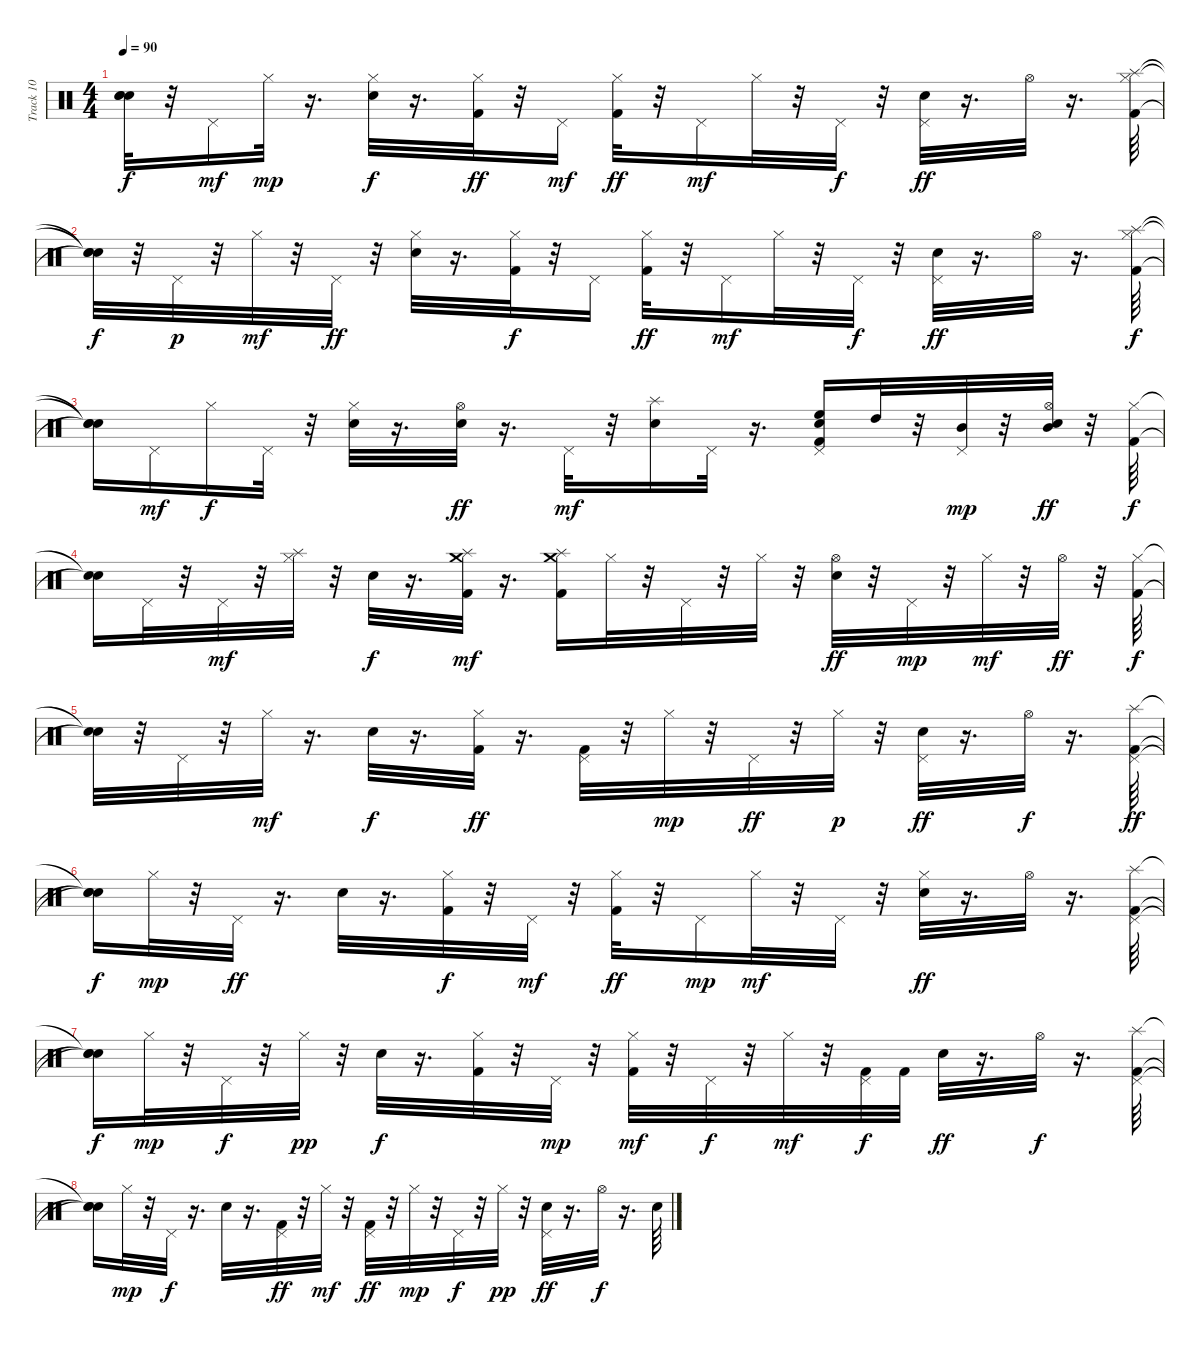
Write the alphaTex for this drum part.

\track ("Track 10" "Track 10") {instrument percussion}
\staff {score}
\articulation defaults
\ts (4 4)
\tempo 90
\clef neutral
\ks c
("Snare (hit)"{t} "Snare (hit)"{t} "Snare (hit)"{t}).32{dy f} r.32 "Pedal Hi-Hat (hit)".16{dy mf} "Hi-Hat (closed)".32{dy mp} r.16{d} ("Hi-Hat (closed)" "Snare (hit) 2").32{dy f} r.16{d} ("Hi-Hat (closed)" "Kick (hit) 2").32{dy ff} r.32 "Pedal Hi-Hat (hit)".16{dy mf} ("Hi-Hat (closed)" "Kick (hit) 2").32{dy ff} r.32 "Pedal Hi-Hat (hit)".16{dy mf} "Hi-Hat (closed)".32 r.32 "Pedal Hi-Hat (hit)".32{dy f} r.32 ("Pedal Hi-Hat (hit)" "Snare (hit) 2").32{dy ff} r.16{d} "Hi-Hat (open)".32 r.16{d} ("Hi-Hat (closed)" "Splash (hit)" "Kick (hit) 2").64 |
("Snare (hit)"{t} "Snare (hit)"{t} "Snare (hit)"{t}).32{dy f} r.32 "Pedal Hi-Hat (hit)".32{dy p} r.32 "Hi-Hat (closed)".32{dy mf} r.32 "Pedal Hi-Hat (hit)".32{dy ff} r.32 ("Hi-Hat (closed)" "Snare (hit) 2").32 r.16{d} ("Hi-Hat (closed)" "Kick (hit) 2").32{dy f} r.32 "Pedal Hi-Hat (hit)".16 ("Hi-Hat (closed)" "Kick (hit) 2").32{dy ff} r.32 "Pedal Hi-Hat (hit)".16{dy mf} "Hi-Hat (closed)".32 r.32 "Pedal Hi-Hat (hit)".32{dy f} r.32 ("Pedal Hi-Hat (hit)" "Snare (hit) 2").32{dy ff} r.16{d} "Hi-Hat (open)".32 r.16{d} ("Hi-Hat (closed)" "Splash (hit)" "Kick (hit) 2").64{dy f} |
("Snare (hit)"{t} "Snare (hit)"{t} "Snare (hit)"{t}).16 "Pedal Hi-Hat (hit)".16{dy mf} "Hi-Hat (closed)".16{dy f} "Pedal Hi-Hat (hit)".32 r.32 ("Hi-Hat (closed)" "Snare (hit) 2").32 r.16{d} ("Hi-Hat (open)" "Snare (hit) 2").32{dy ff} r.16{d} "Pedal Hi-Hat (hit)".32{dy mf} r.32 ("Splash (hit)" "Snare (hit) 2").16 "Pedal Hi-Hat (hit)".32 r.16{d} ("Pedal Hi-Hat (hit)" "High Floor Tom (hit)" "Snare (hit) 2" "Kick (hit) 2").16 "High Tom (hit)".32 r.32 ("Pedal Hi-Hat (hit)" "Mid Tom (hit)").32{dy mp} r.32 ("Hi-Hat (open)" "Snare (hit) 2" "Mid Tom (hit)").32{dy ff} r.32 ("Hi-Hat (closed)" "Kick (hit) 2").64{dy f} |
("Snare (hit)"{t} "Snare (hit)"{t}).16 "Pedal Hi-Hat (hit)".32 r.32 "Pedal Hi-Hat (hit)".32{dy mf} r.32 ("Hi-Hat (closed)" "Splash (hit)").32 r.32 "Snare (hit) 2".32{dy f} r.16{d} ("Kick (hit) 2" "Splash (hit)" "Crash medium (hit)").32{dy mf} r.16{d} ("Kick (hit) 2" "Splash (hit)" "Crash medium (hit)").16 "Hi-Hat (closed)".32 r.32 "Pedal Hi-Hat (hit)".32 r.32 "Hi-Hat (closed)".32 r.32 ("Hi-Hat (open)" "Snare (hit) 2").32{dy ff} r.32 "Pedal Hi-Hat (hit)".32{dy mp} r.32 "Hi-Hat (closed)".32{dy mf} r.32 "Hi-Hat (open)".32{dy ff} r.32 ("Hi-Hat (closed)" "Kick (hit) 2").64{dy f} |
("Snare (hit)"{t} "Snare (hit)"{t}).32 r.32 "Pedal Hi-Hat (hit)".32 r.32 "Hi-Hat (closed)".32{dy mf} r.16{d} "Snare (hit) 2".32{dy f} r.16{d} ("Hi-Hat (closed)" "Kick (hit) 2").32{dy ff} r.16{d} ("Pedal Hi-Hat (hit)" "Kick (hit) 2").32 r.32 "Hi-Hat (closed)".32{dy mp} r.32 "Pedal Hi-Hat (hit)".32{dy ff} r.32 "Hi-Hat (closed)".32{dy p} r.32 ("Pedal Hi-Hat (hit)" "Snare (hit) 2").32{dy ff} r.16{d} "Hi-Hat (open)".32{dy f} r.16{d} ("Pedal Hi-Hat (hit)" "Splash (hit)" "Kick (hit) 2").64{dy ff} |
("Snare (hit)"{t} "Snare (hit)"{t} "Snare (hit)"{t}).16{dy f} "Hi-Hat (closed)".32{dy mp} r.32 "Pedal Hi-Hat (hit)".32{dy ff} r.16{d} "Snare (hit) 2".32 r.16{d} ("Hi-Hat (closed)" "Kick (hit) 2").32{dy f} r.32 "Pedal Hi-Hat (hit)".32{dy mf} r.32 ("Hi-Hat (closed)" "Kick (hit) 2").32{dy ff} r.32 "Pedal Hi-Hat (hit)".16{dy mp} "Hi-Hat (closed)".32{dy mf} r.32 "Pedal Hi-Hat (hit)".32 r.32 ("Hi-Hat (closed)" "Snare (hit) 2").32{dy ff} r.16{d} "Hi-Hat (open)".32 r.16{d} ("Pedal Hi-Hat (hit)" "Kick (hit) 2" "Splash (hit)").64 |
("Snare (hit)"{t} "Snare (hit)"{t} "Snare (hit)"{t}).16{dy f} "Hi-Hat (closed)".32{dy mp} r.32 "Pedal Hi-Hat (hit)".32{dy f} r.32 "Hi-Hat (closed)".32{dy pp} r.32 "Snare (hit) 2".32{dy f} r.16{d} ("Hi-Hat (closed)" "Kick (hit) 2").32 r.32 "Pedal Hi-Hat (hit)".32{dy mp} r.32 ("Hi-Hat (closed)" "Kick (hit) 2").32{dy mf} r.32 "Pedal Hi-Hat (hit)".32{dy f} r.32 "Hi-Hat (closed)".32{dy mf} r.32 ("Pedal Hi-Hat (hit)" "Kick (hit) 2").32{dy f} "Kick (hit) 2".32 "Snare (hit) 2".32{dy ff} r.16{d} "Hi-Hat (open)".32{dy f} r.16{d} ("Pedal Hi-Hat (hit)" "Kick (hit) 2" "Splash (hit)").64 |
("Snare (hit)"{t} "Snare (hit)"{t} "Snare (hit)"{t}).16 "Hi-Hat (closed)".32{dy mp} r.32 "Pedal Hi-Hat (hit)".32{dy f} r.16{d} "Snare (hit) 2".32 r.16{d} ("Pedal Hi-Hat (hit)" "Kick (hit) 2").32{dy ff} r.32 "Hi-Hat (closed)".32{dy mf} r.32 ("Pedal Hi-Hat (hit)" "Kick (hit) 2").32{dy ff} r.32 "Hi-Hat (closed)".32{dy mp} r.32 "Pedal Hi-Hat (hit)".32{dy f} r.32 "Hi-Hat (closed)".32{dy pp} r.32 ("Pedal Hi-Hat (hit)" "Snare (hit) 2").32{dy ff} r.16{d} "Hi-Hat (open)".32{dy f} r.16{d} "Snare (hit) 2".64
